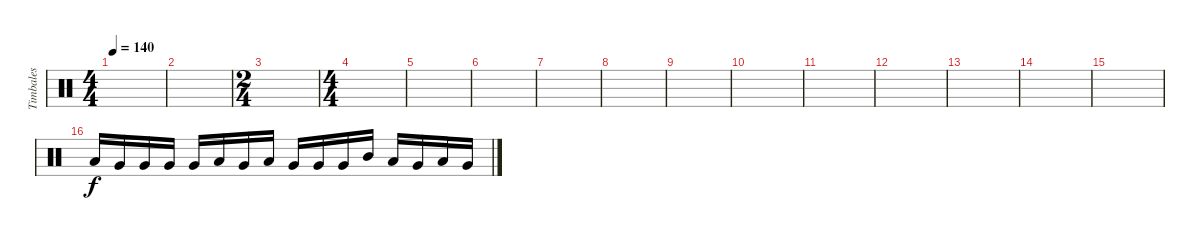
\track ("Timbales" "Timbales") {instrument percussion}
\staff {score}
\articulation defaults
\ts (4 4)
\tempo 140
\clef neutral
\ks c
|
|
\ts (2 4)
|
\ts (4 4)
|
|
|
|
|
|
|
|
|
|
|
|
"Low Tom (hit)".16 "Very Low Tom (hit)".16 "Very Low Tom (hit)".16 "Very Low Tom (hit)".16 "Very Low Tom (hit)".16 "Low Tom (hit)".16 "Very Low Tom (hit)".16 "Low Tom (hit)".16 "Very Low Tom (hit)".16 "Very Low Tom (hit)".16 "Very Low Tom (hit)".16 "Mid Tom (hit)".16 "Low Tom (hit)".16 "Very Low Tom (hit)".16 "Low Floor Tom (hit)".16 "Very Low Tom (hit)".16
